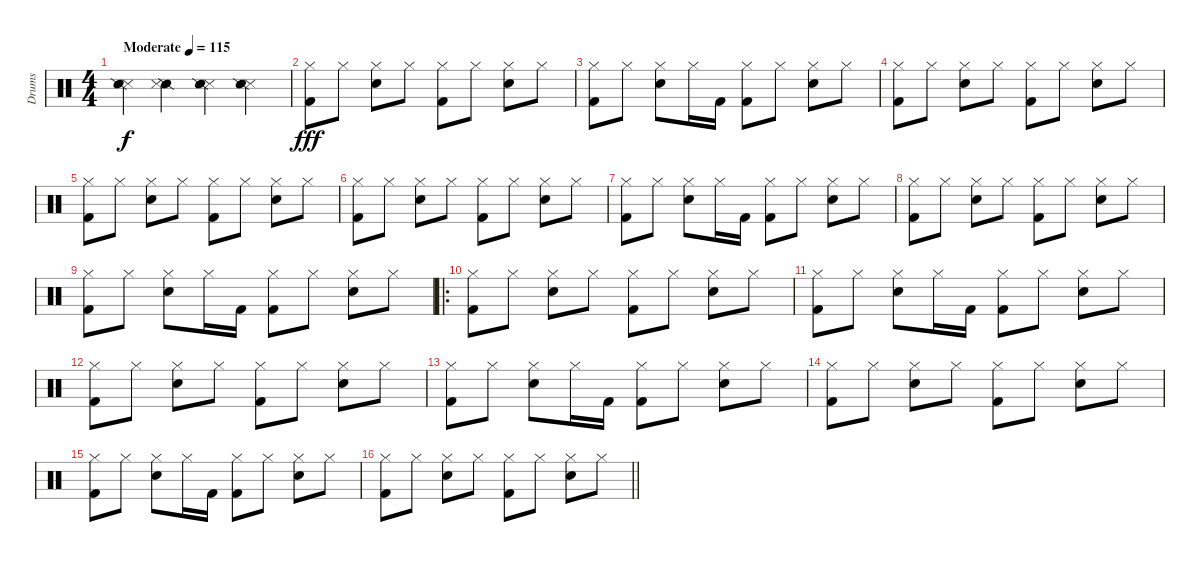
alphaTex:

\track ("Drums" "Drums") {instrument percussion}
\staff {score}
\articulation defaults
\ts (4 4)
\tempo (115 "Moderate")
\clef neutral
\ks c
("Snare (side stick) 3" "Snare (side stick) 2").4{dy f} ("Snare (side stick) 2" "Snare (side stick) 3").4 ("Snare (side stick) 3" "Snare (side stick) 2").4 ("Snare (side stick) 3" "Snare (side stick) 2").4 |
("Kick (hit) 2" "Hi-Hat (closed)").8{dy fff} "Hi-Hat (closed)".8 ("Hi-Hat (closed)" "Electric Snare (hit)").8 "Hi-Hat (closed)".8 ("Kick (hit) 2" "Hi-Hat (closed)").8 "Hi-Hat (closed)".8 ("Hi-Hat (closed)" "Electric Snare (hit)").8 "Hi-Hat (closed)".8 |
("Kick (hit) 2" "Hi-Hat (closed)").8 "Hi-Hat (closed)".8 ("Hi-Hat (closed)" "Electric Snare (hit)").8 "Hi-Hat (closed)".16 "Kick (hit) 2".16 ("Kick (hit) 2" "Hi-Hat (closed)").8 "Hi-Hat (closed)".8 ("Electric Snare (hit)" "Hi-Hat (closed)").8 "Hi-Hat (closed)".8 |
("Kick (hit) 2" "Hi-Hat (closed)").8 "Hi-Hat (closed)".8 ("Electric Snare (hit)" "Hi-Hat (closed)").8 "Hi-Hat (closed)".8 ("Kick (hit) 2" "Hi-Hat (closed)").8 "Hi-Hat (closed)".8 ("Electric Snare (hit)" "Hi-Hat (closed)").8 "Hi-Hat (closed)".8 |
("Kick (hit) 2" "Hi-Hat (closed)").8 "Hi-Hat (closed)".8 ("Hi-Hat (closed)" "Electric Snare (hit)").8 "Hi-Hat (closed)".8 ("Kick (hit) 2" "Hi-Hat (closed)").8 "Hi-Hat (closed)".8 ("Hi-Hat (closed)" "Electric Snare (hit)").8 "Hi-Hat (closed)".8 |
("Kick (hit) 2" "Hi-Hat (closed)").8 "Hi-Hat (closed)".8 ("Hi-Hat (closed)" "Electric Snare (hit)").8 "Hi-Hat (closed)".8 ("Kick (hit) 2" "Hi-Hat (closed)").8 "Hi-Hat (closed)".8 ("Hi-Hat (closed)" "Electric Snare (hit)").8 "Hi-Hat (closed)".8 |
("Kick (hit) 2" "Hi-Hat (closed)").8 "Hi-Hat (closed)".8 ("Hi-Hat (closed)" "Electric Snare (hit)").8 "Hi-Hat (closed)".16 "Kick (hit) 2".16 ("Kick (hit) 2" "Hi-Hat (closed)").8 "Hi-Hat (closed)".8 ("Electric Snare (hit)" "Hi-Hat (closed)").8 "Hi-Hat (closed)".8 |
("Kick (hit) 2" "Hi-Hat (closed)").8 "Hi-Hat (closed)".8 ("Electric Snare (hit)" "Hi-Hat (closed)").8 "Hi-Hat (closed)".8 ("Kick (hit) 2" "Hi-Hat (closed)").8 "Hi-Hat (closed)".8 ("Electric Snare (hit)" "Hi-Hat (closed)").8 "Hi-Hat (closed)".8 |
("Kick (hit) 2" "Hi-Hat (closed)").8 "Hi-Hat (closed)".8 ("Electric Snare (hit)" "Hi-Hat (closed)").8 "Hi-Hat (closed)".16 "Kick (hit) 2".16 ("Kick (hit) 2" "Hi-Hat (closed)").8 "Hi-Hat (closed)".8 ("Electric Snare (hit)" "Hi-Hat (closed)").8 "Hi-Hat (closed)".8 |
\ro
("Kick (hit) 2" "Hi-Hat (closed)").8 "Hi-Hat (closed)".8 ("Electric Snare (hit)" "Hi-Hat (closed)").8 "Hi-Hat (closed)".8 ("Kick (hit) 2" "Hi-Hat (closed)").8 "Hi-Hat (closed)".8 ("Electric Snare (hit)" "Hi-Hat (closed)").8 "Hi-Hat (closed)".8 |
("Kick (hit) 2" "Hi-Hat (closed)").8 "Hi-Hat (closed)".8 ("Electric Snare (hit)" "Hi-Hat (closed)").8 "Hi-Hat (closed)".16 "Kick (hit) 2".16 ("Kick (hit) 2" "Hi-Hat (closed)").8 "Hi-Hat (closed)".8 ("Electric Snare (hit)" "Hi-Hat (closed)").8 "Hi-Hat (closed)".8 |
("Kick (hit) 2" "Hi-Hat (closed)").8 "Hi-Hat (closed)".8 ("Electric Snare (hit)" "Hi-Hat (closed)").8 "Hi-Hat (closed)".8 ("Kick (hit) 2" "Hi-Hat (closed)").8 "Hi-Hat (closed)".8 ("Electric Snare (hit)" "Hi-Hat (closed)").8 "Hi-Hat (closed)".8 |
("Kick (hit) 2" "Hi-Hat (closed)").8 "Hi-Hat (closed)".8 ("Electric Snare (hit)" "Hi-Hat (closed)").8 "Hi-Hat (closed)".16 "Kick (hit) 2".16 ("Kick (hit) 2" "Hi-Hat (closed)").8 "Hi-Hat (closed)".8 ("Electric Snare (hit)" "Hi-Hat (closed)").8 "Hi-Hat (closed)".8 |
("Kick (hit) 2" "Hi-Hat (closed)").8 "Hi-Hat (closed)".8 ("Electric Snare (hit)" "Hi-Hat (closed)").8 "Hi-Hat (closed)".8 ("Kick (hit) 2" "Hi-Hat (closed)").8 "Hi-Hat (closed)".8 ("Electric Snare (hit)" "Hi-Hat (closed)").8 "Hi-Hat (closed)".8 |
("Kick (hit) 2" "Hi-Hat (closed)").8 "Hi-Hat (closed)".8 ("Electric Snare (hit)" "Hi-Hat (closed)").8 "Hi-Hat (closed)".16 "Kick (hit) 2".16 ("Kick (hit) 2" "Hi-Hat (closed)").8 "Hi-Hat (closed)".8 ("Electric Snare (hit)" "Hi-Hat (closed)").8 "Hi-Hat (closed)".8 |
\barLineRight lightlight
("Kick (hit) 2" "Hi-Hat (closed)").8 "Hi-Hat (closed)".8 ("Electric Snare (hit)" "Hi-Hat (closed)").8 "Hi-Hat (closed)".8 ("Kick (hit) 2" "Hi-Hat (closed)").8 "Hi-Hat (closed)".8 ("Electric Snare (hit)" "Hi-Hat (closed)").8 "Hi-Hat (closed)".8
